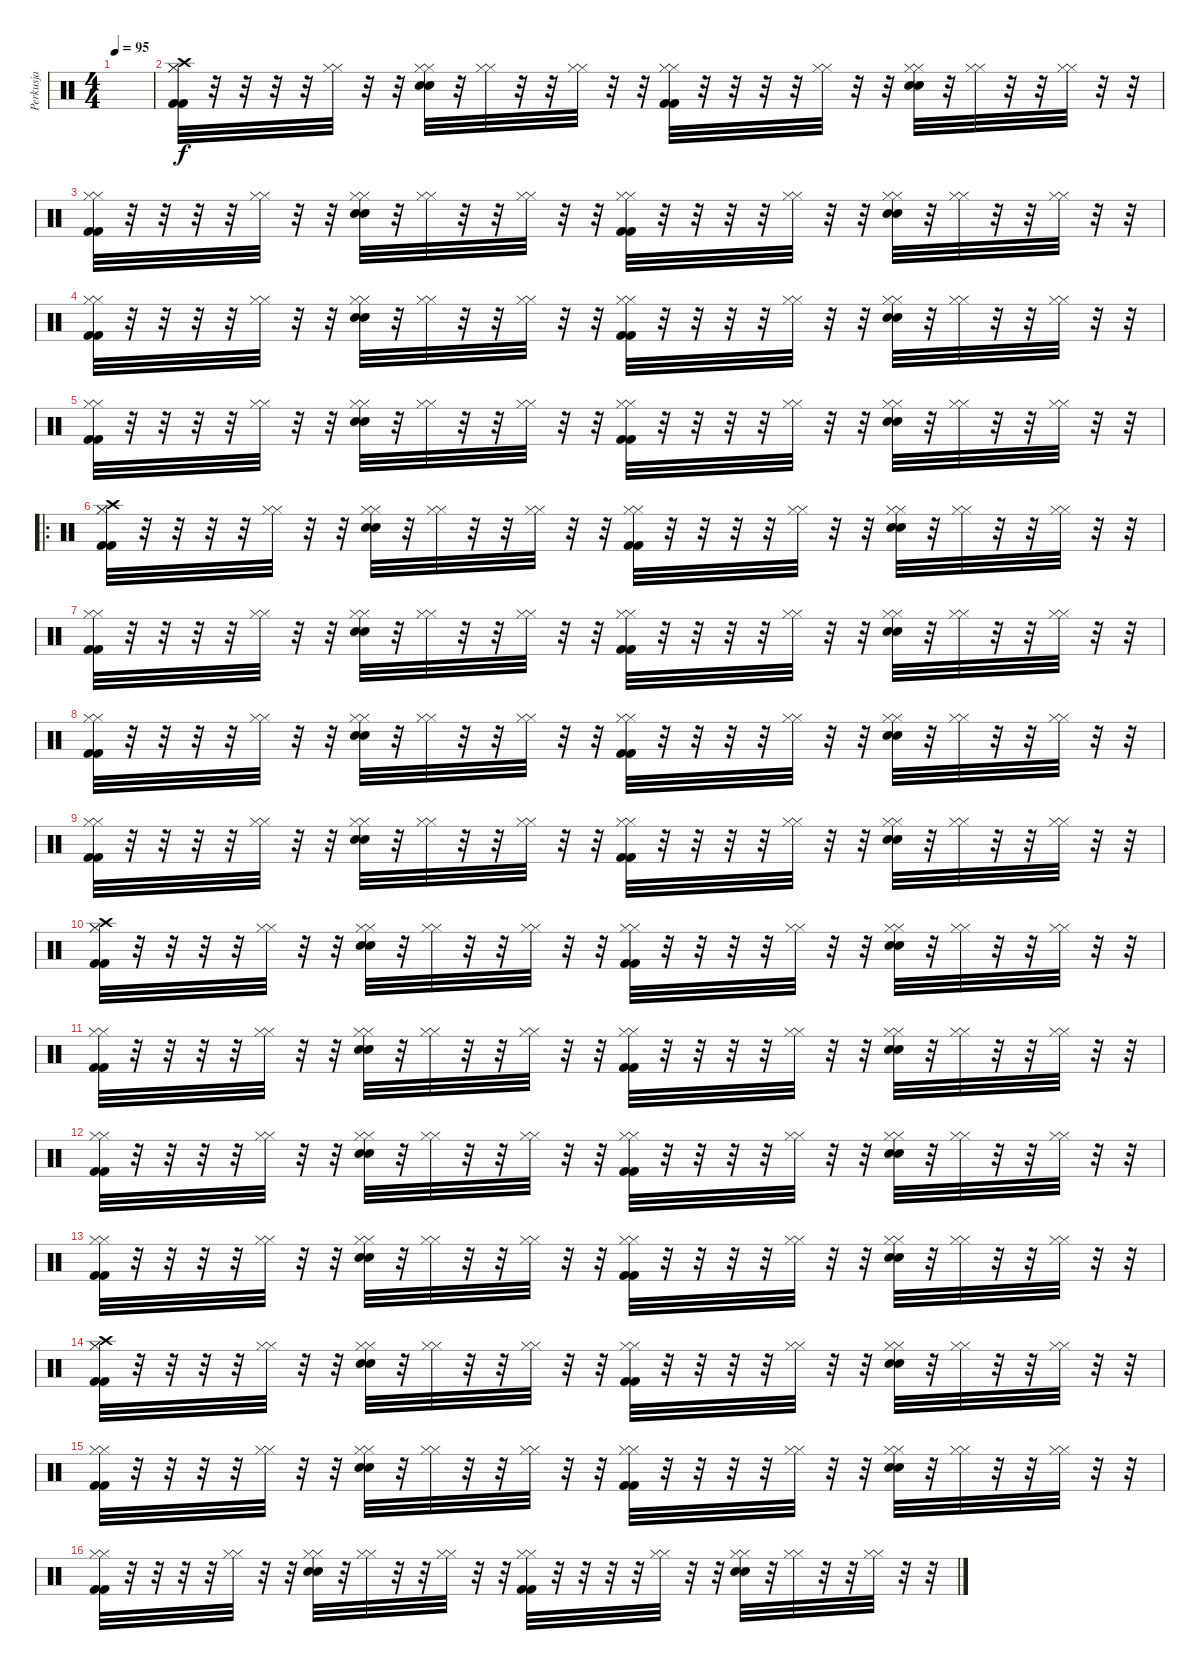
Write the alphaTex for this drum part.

\track ("Perkusja" "Perkusja") {instrument percussion}
\staff {score}
\articulation defaults
\ts (4 4)
\tempo 95
\clef neutral
\ks c
|
("Crash high (hit)" "Hi-Hat (closed)" "Hi-Hat (closed)" "Kick (hit) 2" "Kick (hit) 2").32 r.32 r.32 r.32 r.32 ("Hi-Hat (closed)" "Hi-Hat (closed)").32 r.32 r.32 ("Hi-Hat (closed)" "Hi-Hat (closed)" "Snare (hit) 2" "Snare (hit) 2").32 r.32 ("Hi-Hat (closed)" "Hi-Hat (closed)").32 r.32 r.32 ("Hi-Hat (closed)" "Hi-Hat (closed)").32 r.32 r.32 ("Hi-Hat (closed)" "Hi-Hat (closed)" "Kick (hit) 2" "Kick (hit) 2").32 r.32 r.32 r.32 r.32 ("Hi-Hat (closed)" "Hi-Hat (closed)").32 r.32 r.32 ("Hi-Hat (closed)" "Hi-Hat (closed)" "Snare (hit) 2" "Snare (hit) 2").32 r.32 ("Hi-Hat (closed)" "Hi-Hat (closed)").32 r.32 r.32 ("Hi-Hat (closed)" "Hi-Hat (closed)").32 r.32 r.32 |
("Hi-Hat (closed)" "Hi-Hat (closed)" "Kick (hit) 2" "Kick (hit) 2").32 r.32 r.32 r.32 r.32 ("Hi-Hat (closed)" "Hi-Hat (closed)").32 r.32 r.32 ("Hi-Hat (closed)" "Hi-Hat (closed)" "Snare (hit) 2" "Snare (hit) 2").32 r.32 ("Hi-Hat (closed)" "Hi-Hat (closed)").32 r.32 r.32 ("Hi-Hat (closed)" "Hi-Hat (closed)").32 r.32 r.32 ("Hi-Hat (closed)" "Hi-Hat (closed)" "Kick (hit) 2" "Kick (hit) 2").32 r.32 r.32 r.32 r.32 ("Hi-Hat (closed)" "Hi-Hat (closed)").32 r.32 r.32 ("Hi-Hat (closed)" "Hi-Hat (closed)" "Snare (hit) 2" "Snare (hit) 2").32 r.32 ("Hi-Hat (closed)" "Hi-Hat (closed)").32 r.32 r.32 ("Hi-Hat (closed)" "Hi-Hat (closed)").32 r.32 r.32 |
("Hi-Hat (closed)" "Hi-Hat (closed)" "Kick (hit) 2" "Kick (hit) 2").32 r.32 r.32 r.32 r.32 ("Hi-Hat (closed)" "Hi-Hat (closed)").32 r.32 r.32 ("Hi-Hat (closed)" "Hi-Hat (closed)" "Snare (hit) 2" "Snare (hit) 2").32 r.32 ("Hi-Hat (closed)" "Hi-Hat (closed)").32 r.32 r.32 ("Hi-Hat (closed)" "Hi-Hat (closed)").32 r.32 r.32 ("Hi-Hat (closed)" "Hi-Hat (closed)" "Kick (hit) 2" "Kick (hit) 2").32 r.32 r.32 r.32 r.32 ("Hi-Hat (closed)" "Hi-Hat (closed)").32 r.32 r.32 ("Hi-Hat (closed)" "Hi-Hat (closed)" "Snare (hit) 2" "Snare (hit) 2").32 r.32 ("Hi-Hat (closed)" "Hi-Hat (closed)").32 r.32 r.32 ("Hi-Hat (closed)" "Hi-Hat (closed)").32 r.32 r.32 |
("Hi-Hat (closed)" "Hi-Hat (closed)" "Kick (hit) 2" "Kick (hit) 2").32 r.32 r.32 r.32 r.32 ("Hi-Hat (closed)" "Hi-Hat (closed)").32 r.32 r.32 ("Hi-Hat (closed)" "Hi-Hat (closed)" "Snare (hit) 2" "Snare (hit) 2").32 r.32 ("Hi-Hat (closed)" "Hi-Hat (closed)").32 r.32 r.32 ("Hi-Hat (closed)" "Hi-Hat (closed)").32 r.32 r.32 ("Hi-Hat (closed)" "Hi-Hat (closed)" "Kick (hit) 2" "Kick (hit) 2").32 r.32 r.32 r.32 r.32 ("Hi-Hat (closed)" "Hi-Hat (closed)").32 r.32 r.32 ("Hi-Hat (closed)" "Hi-Hat (closed)" "Snare (hit) 2" "Snare (hit) 2").32 r.32 ("Hi-Hat (closed)" "Hi-Hat (closed)").32 r.32 r.32 ("Hi-Hat (closed)" "Hi-Hat (closed)").32 r.32 r.32 |
\ro
("Crash high (hit)" "Hi-Hat (closed)" "Hi-Hat (closed)" "Kick (hit) 2" "Kick (hit) 2").32 r.32 r.32 r.32 r.32 ("Hi-Hat (closed)" "Hi-Hat (closed)").32 r.32 r.32 ("Hi-Hat (closed)" "Hi-Hat (closed)" "Snare (hit) 2" "Snare (hit) 2").32 r.32 ("Hi-Hat (closed)" "Hi-Hat (closed)").32 r.32 r.32 ("Hi-Hat (closed)" "Hi-Hat (closed)").32 r.32 r.32 ("Hi-Hat (closed)" "Hi-Hat (closed)" "Kick (hit) 2" "Kick (hit) 2").32 r.32 r.32 r.32 r.32 ("Hi-Hat (closed)" "Hi-Hat (closed)").32 r.32 r.32 ("Hi-Hat (closed)" "Hi-Hat (closed)" "Snare (hit) 2" "Snare (hit) 2").32 r.32 ("Hi-Hat (closed)" "Hi-Hat (closed)").32 r.32 r.32 ("Hi-Hat (closed)" "Hi-Hat (closed)").32 r.32 r.32 |
("Hi-Hat (closed)" "Hi-Hat (closed)" "Kick (hit) 2" "Kick (hit) 2").32 r.32 r.32 r.32 r.32 ("Hi-Hat (closed)" "Hi-Hat (closed)").32 r.32 r.32 ("Hi-Hat (closed)" "Hi-Hat (closed)" "Snare (hit) 2" "Snare (hit) 2").32 r.32 ("Hi-Hat (closed)" "Hi-Hat (closed)").32 r.32 r.32 ("Hi-Hat (closed)" "Hi-Hat (closed)").32 r.32 r.32 ("Hi-Hat (closed)" "Hi-Hat (closed)" "Kick (hit) 2" "Kick (hit) 2").32 r.32 r.32 r.32 r.32 ("Hi-Hat (closed)" "Hi-Hat (closed)").32 r.32 r.32 ("Hi-Hat (closed)" "Hi-Hat (closed)" "Snare (hit) 2" "Snare (hit) 2").32 r.32 ("Hi-Hat (closed)" "Hi-Hat (closed)").32 r.32 r.32 ("Hi-Hat (closed)" "Hi-Hat (closed)").32 r.32 r.32 |
("Hi-Hat (closed)" "Hi-Hat (closed)" "Kick (hit) 2" "Kick (hit) 2").32 r.32 r.32 r.32 r.32 ("Hi-Hat (closed)" "Hi-Hat (closed)").32 r.32 r.32 ("Hi-Hat (closed)" "Hi-Hat (closed)" "Snare (hit) 2" "Snare (hit) 2").32 r.32 ("Hi-Hat (closed)" "Hi-Hat (closed)").32 r.32 r.32 ("Hi-Hat (closed)" "Hi-Hat (closed)").32 r.32 r.32 ("Hi-Hat (closed)" "Hi-Hat (closed)" "Kick (hit) 2" "Kick (hit) 2").32 r.32 r.32 r.32 r.32 ("Hi-Hat (closed)" "Hi-Hat (closed)").32 r.32 r.32 ("Hi-Hat (closed)" "Hi-Hat (closed)" "Snare (hit) 2" "Snare (hit) 2").32 r.32 ("Hi-Hat (closed)" "Hi-Hat (closed)").32 r.32 r.32 ("Hi-Hat (closed)" "Hi-Hat (closed)").32 r.32 r.32 |
("Hi-Hat (closed)" "Hi-Hat (closed)" "Kick (hit) 2" "Kick (hit) 2").32 r.32 r.32 r.32 r.32 ("Hi-Hat (closed)" "Hi-Hat (closed)").32 r.32 r.32 ("Hi-Hat (closed)" "Hi-Hat (closed)" "Snare (hit) 2" "Snare (hit) 2").32 r.32 ("Hi-Hat (closed)" "Hi-Hat (closed)").32 r.32 r.32 ("Hi-Hat (closed)" "Hi-Hat (closed)").32 r.32 r.32 ("Hi-Hat (closed)" "Hi-Hat (closed)" "Kick (hit) 2" "Kick (hit) 2").32 r.32 r.32 r.32 r.32 ("Hi-Hat (closed)" "Hi-Hat (closed)").32 r.32 r.32 ("Hi-Hat (closed)" "Hi-Hat (closed)" "Snare (hit) 2" "Snare (hit) 2").32 r.32 ("Hi-Hat (closed)" "Hi-Hat (closed)").32 r.32 r.32 ("Hi-Hat (closed)" "Hi-Hat (closed)").32 r.32 r.32 |
("Crash high (hit)" "Hi-Hat (closed)" "Hi-Hat (closed)" "Kick (hit) 2" "Kick (hit) 2").32 r.32 r.32 r.32 r.32 ("Hi-Hat (closed)" "Hi-Hat (closed)").32 r.32 r.32 ("Hi-Hat (closed)" "Hi-Hat (closed)" "Snare (hit) 2" "Snare (hit) 2").32 r.32 ("Hi-Hat (closed)" "Hi-Hat (closed)").32 r.32 r.32 ("Hi-Hat (closed)" "Hi-Hat (closed)").32 r.32 r.32 ("Hi-Hat (closed)" "Hi-Hat (closed)" "Kick (hit) 2" "Kick (hit) 2").32 r.32 r.32 r.32 r.32 ("Hi-Hat (closed)" "Hi-Hat (closed)").32 r.32 r.32 ("Hi-Hat (closed)" "Hi-Hat (closed)" "Snare (hit) 2" "Snare (hit) 2").32 r.32 ("Hi-Hat (closed)" "Hi-Hat (closed)").32 r.32 r.32 ("Hi-Hat (closed)" "Hi-Hat (closed)").32 r.32 r.32 |
("Hi-Hat (closed)" "Hi-Hat (closed)" "Kick (hit) 2" "Kick (hit) 2").32 r.32 r.32 r.32 r.32 ("Hi-Hat (closed)" "Hi-Hat (closed)").32 r.32 r.32 ("Hi-Hat (closed)" "Hi-Hat (closed)" "Snare (hit) 2" "Snare (hit) 2").32 r.32 ("Hi-Hat (closed)" "Hi-Hat (closed)").32 r.32 r.32 ("Hi-Hat (closed)" "Hi-Hat (closed)").32 r.32 r.32 ("Hi-Hat (closed)" "Hi-Hat (closed)" "Kick (hit) 2" "Kick (hit) 2").32 r.32 r.32 r.32 r.32 ("Hi-Hat (closed)" "Hi-Hat (closed)").32 r.32 r.32 ("Hi-Hat (closed)" "Hi-Hat (closed)" "Snare (hit) 2" "Snare (hit) 2").32 r.32 ("Hi-Hat (closed)" "Hi-Hat (closed)").32 r.32 r.32 ("Hi-Hat (closed)" "Hi-Hat (closed)").32 r.32 r.32 |
("Hi-Hat (closed)" "Hi-Hat (closed)" "Kick (hit) 2" "Kick (hit) 2").32 r.32 r.32 r.32 r.32 ("Hi-Hat (closed)" "Hi-Hat (closed)").32 r.32 r.32 ("Hi-Hat (closed)" "Hi-Hat (closed)" "Snare (hit) 2" "Snare (hit) 2").32 r.32 ("Hi-Hat (closed)" "Hi-Hat (closed)").32 r.32 r.32 ("Hi-Hat (closed)" "Hi-Hat (closed)").32 r.32 r.32 ("Hi-Hat (closed)" "Hi-Hat (closed)" "Kick (hit) 2" "Kick (hit) 2").32 r.32 r.32 r.32 r.32 ("Hi-Hat (closed)" "Hi-Hat (closed)").32 r.32 r.32 ("Hi-Hat (closed)" "Hi-Hat (closed)" "Snare (hit) 2" "Snare (hit) 2").32 r.32 ("Hi-Hat (closed)" "Hi-Hat (closed)").32 r.32 r.32 ("Hi-Hat (closed)" "Hi-Hat (closed)").32 r.32 r.32 |
("Hi-Hat (closed)" "Hi-Hat (closed)" "Kick (hit) 2" "Kick (hit) 2").32 r.32 r.32 r.32 r.32 ("Hi-Hat (closed)" "Hi-Hat (closed)").32 r.32 r.32 ("Hi-Hat (closed)" "Hi-Hat (closed)" "Snare (hit) 2" "Snare (hit) 2").32 r.32 ("Hi-Hat (closed)" "Hi-Hat (closed)").32 r.32 r.32 ("Hi-Hat (closed)" "Hi-Hat (closed)").32 r.32 r.32 ("Hi-Hat (closed)" "Hi-Hat (closed)" "Kick (hit) 2" "Kick (hit) 2").32 r.32 r.32 r.32 r.32 ("Hi-Hat (closed)" "Hi-Hat (closed)").32 r.32 r.32 ("Hi-Hat (closed)" "Hi-Hat (closed)" "Snare (hit) 2" "Snare (hit) 2").32 r.32 ("Hi-Hat (closed)" "Hi-Hat (closed)").32 r.32 r.32 ("Hi-Hat (closed)" "Hi-Hat (closed)").32 r.32 r.32 |
("Crash high (hit)" "Hi-Hat (closed)" "Hi-Hat (closed)" "Kick (hit) 2" "Kick (hit) 2").32 r.32 r.32 r.32 r.32 ("Hi-Hat (closed)" "Hi-Hat (closed)").32 r.32 r.32 ("Hi-Hat (closed)" "Hi-Hat (closed)" "Snare (hit) 2" "Snare (hit) 2").32 r.32 ("Hi-Hat (closed)" "Hi-Hat (closed)").32 r.32 r.32 ("Hi-Hat (closed)" "Hi-Hat (closed)").32 r.32 r.32 ("Hi-Hat (closed)" "Hi-Hat (closed)" "Kick (hit) 2" "Kick (hit) 2").32 r.32 r.32 r.32 r.32 ("Hi-Hat (closed)" "Hi-Hat (closed)").32 r.32 r.32 ("Hi-Hat (closed)" "Hi-Hat (closed)" "Snare (hit) 2" "Snare (hit) 2").32 r.32 ("Hi-Hat (closed)" "Hi-Hat (closed)").32 r.32 r.32 ("Hi-Hat (closed)" "Hi-Hat (closed)").32 r.32 r.32 |
("Hi-Hat (closed)" "Hi-Hat (closed)" "Kick (hit) 2" "Kick (hit) 2").32 r.32 r.32 r.32 r.32 ("Hi-Hat (closed)" "Hi-Hat (closed)").32 r.32 r.32 ("Hi-Hat (closed)" "Hi-Hat (closed)" "Snare (hit) 2" "Snare (hit) 2").32 r.32 ("Hi-Hat (closed)" "Hi-Hat (closed)").32 r.32 r.32 ("Hi-Hat (closed)" "Hi-Hat (closed)").32 r.32 r.32 ("Hi-Hat (closed)" "Hi-Hat (closed)" "Kick (hit) 2" "Kick (hit) 2").32 r.32 r.32 r.32 r.32 ("Hi-Hat (closed)" "Hi-Hat (closed)").32 r.32 r.32 ("Hi-Hat (closed)" "Hi-Hat (closed)" "Snare (hit) 2" "Snare (hit) 2").32 r.32 ("Hi-Hat (closed)" "Hi-Hat (closed)").32 r.32 r.32 ("Hi-Hat (closed)" "Hi-Hat (closed)").32 r.32 r.32 |
("Hi-Hat (closed)" "Hi-Hat (closed)" "Kick (hit) 2" "Kick (hit) 2").32 r.32 r.32 r.32 r.32 ("Hi-Hat (closed)" "Hi-Hat (closed)").32 r.32 r.32 ("Hi-Hat (closed)" "Hi-Hat (closed)" "Snare (hit) 2" "Snare (hit) 2").32 r.32 ("Hi-Hat (closed)" "Hi-Hat (closed)").32 r.32 r.32 ("Hi-Hat (closed)" "Hi-Hat (closed)").32 r.32 r.32 ("Hi-Hat (closed)" "Hi-Hat (closed)" "Kick (hit) 2" "Kick (hit) 2").32 r.32 r.32 r.32 r.32 ("Hi-Hat (closed)" "Hi-Hat (closed)").32 r.32 r.32 ("Hi-Hat (closed)" "Hi-Hat (closed)" "Snare (hit) 2" "Snare (hit) 2").32 r.32 ("Hi-Hat (closed)" "Hi-Hat (closed)").32 r.32 r.32 ("Hi-Hat (closed)" "Hi-Hat (closed)").32 r.32 r.32
